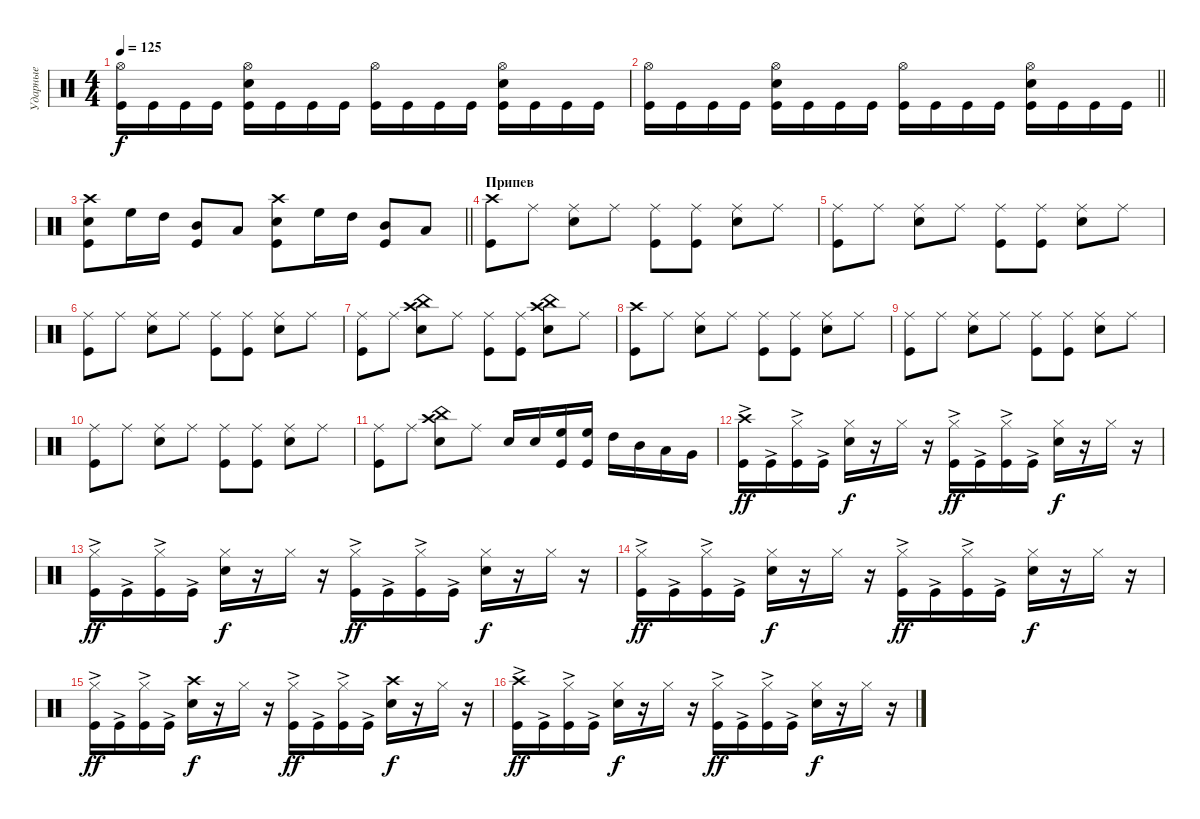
\track ("Ударные" "Ударные") {instrument percussion}
\staff {score}
\articulation defaults
\ts (4 4)
\tempo 125
\clef neutral
\ks c
("Hi-Hat (open)" "Kick (hit)").16{dy f} "Kick (hit)".16 "Kick (hit)".16 "Kick (hit)".16 ("Hi-Hat (open)" "Snare (hit) 2" "Kick (hit)").16 "Kick (hit)".16 "Kick (hit)".16 "Kick (hit)".16 ("Hi-Hat (open)" "Kick (hit)").16 "Kick (hit)".16 "Kick (hit)".16 "Kick (hit)".16 ("Hi-Hat (open)" "Snare (hit) 2" "Kick (hit)").16 "Kick (hit)".16 "Kick (hit)".16 "Kick (hit)".16 |
\barLineRight lightlight
("Hi-Hat (open)" "Kick (hit)").16 "Kick (hit)".16 "Kick (hit)".16 "Kick (hit)".16 ("Hi-Hat (open)" "Snare (hit) 2" "Kick (hit)").16 "Kick (hit)".16 "Kick (hit)".16 "Kick (hit)".16 ("Hi-Hat (open)" "Kick (hit)").16 "Kick (hit)".16 "Kick (hit)".16 "Kick (hit)".16 ("Hi-Hat (open)" "Snare (hit) 2" "Kick (hit)").16 "Kick (hit)".16 "Kick (hit)".16 "Kick (hit)".16 |
\section ("" "")
\barLineRight lightlight
("Crash high (hit)" "Snare (hit) 2" "Kick (hit)").8 "High Floor Tom (hit)".16 "High Tom (hit)".16 ("Mid Tom (hit)" "Kick (hit)").8 "Low Tom (hit)".8 ("Crash high (hit)" "Snare (hit) 2" "Kick (hit)").8 "High Floor Tom (hit)".16 "High Tom (hit)".16 ("Mid Tom (hit)" "Kick (hit)").8 "Low Tom (hit)".8 |
\section ("" "Припев")
("Crash high (hit)" "Kick (hit)").8 "Ride (middle)".8 ("Ride (middle)" "Snare (hit) 2").8 "Ride (middle)".8 ("Ride (middle)" "Kick (hit)").8 ("Ride (middle)" "Kick (hit)").8 ("Ride (middle)" "Snare (hit) 2").8 "Ride (middle)".8 |
("Ride (middle)" "Kick (hit)").8 "Ride (middle)".8 ("Ride (middle)" "Snare (hit) 2").8 "Ride (middle)".8 ("Ride (middle)" "Kick (hit)").8 ("Ride (middle)" "Kick (hit)").8 ("Ride (middle)" "Snare (hit) 2").8 "Ride (middle)".8 |
("Ride (middle)" "Kick (hit)").8 "Ride (middle)".8 ("Ride (middle)" "Snare (hit) 2").8 "Ride (middle)".8 ("Ride (middle)" "Kick (hit)").8 ("Ride (middle)" "Kick (hit)").8 ("Ride (middle)" "Snare (hit) 2").8 "Ride (middle)".8 |
("Ride (middle)" "Kick (hit)").8 "Ride (middle)".8 ("Crash high (hit)" "China (hit)" "Snare (hit) 2").8 "Ride (middle)".8 ("Ride (middle)" "Kick (hit)").8 ("Ride (middle)" "Kick (hit)").8 ("Crash high (hit)" "China (hit)" "Snare (hit) 2").8 "Ride (middle)".8 |
("Crash high (hit)" "Kick (hit)").8 "Ride (middle)".8 ("Ride (middle)" "Snare (hit) 2").8 "Ride (middle)".8 ("Ride (middle)" "Kick (hit)").8 ("Ride (middle)" "Kick (hit)").8 ("Ride (middle)" "Snare (hit) 2").8 "Ride (middle)".8 |
("Ride (middle)" "Kick (hit)").8 "Ride (middle)".8 ("Ride (middle)" "Snare (hit) 2").8 "Ride (middle)".8 ("Ride (middle)" "Kick (hit)").8 ("Ride (middle)" "Kick (hit)").8 ("Ride (middle)" "Snare (hit) 2").8 "Ride (middle)".8 |
("Ride (middle)" "Kick (hit)").8 "Ride (middle)".8 ("Ride (middle)" "Snare (hit) 2").8 "Ride (middle)".8 ("Ride (middle)" "Kick (hit)").8 ("Ride (middle)" "Kick (hit)").8 ("Ride (middle)" "Snare (hit) 2").8 "Ride (middle)".8 |
("Ride (middle)" "Kick (hit)").8 "Ride (middle)".8 ("Crash high (hit)" "China (hit)" "Snare (hit) 2").8 "Ride (middle)".8 "Snare (hit) 2".16 "Snare (hit) 2".16 ("High Floor Tom (hit)" "Kick (hit)").16 ("High Floor Tom (hit)" "Kick (hit)").16 "High Tom (hit)".16 "Mid Tom (hit)".16 "Low Tom (hit)".16 "Very Low Tom (hit)".16 |
("Crash high (hit)" "Kick (hit)"{ac}).16{dy ff} "Kick (hit)"{ac}.16 ("Hi-Hat (closed)" "Kick (hit)"{ac}).16 "Kick (hit)"{ac}.16 ("Hi-Hat (closed)" "Snare (hit) 2").16{dy f} r.16 "Hi-Hat (closed)".16 r.16 ("Hi-Hat (closed)" "Kick (hit)"{ac}).16{dy ff} "Kick (hit)"{ac}.16 ("Hi-Hat (closed)" "Kick (hit)"{ac}).16 "Kick (hit)"{ac}.16 ("Hi-Hat (closed)" "Snare (hit) 2").16{dy f} r.16 "Hi-Hat (closed)".16 r.16 |
("Hi-Hat (closed)" "Kick (hit)"{ac}).16{dy ff} "Kick (hit)"{ac}.16 ("Hi-Hat (closed)" "Kick (hit)"{ac}).16 "Kick (hit)"{ac}.16 ("Hi-Hat (closed)" "Snare (hit) 2").16{dy f} r.16 "Hi-Hat (closed)".16 r.16 ("Hi-Hat (closed)" "Kick (hit)"{ac}).16{dy ff} "Kick (hit)"{ac}.16 ("Hi-Hat (closed)" "Kick (hit)"{ac}).16 "Kick (hit)"{ac}.16 ("Hi-Hat (closed)" "Snare (hit) 2").16{dy f} r.16 "Hi-Hat (closed)".16 r.16 |
("Hi-Hat (closed)" "Kick (hit)"{ac}).16{dy ff} "Kick (hit)"{ac}.16 ("Hi-Hat (closed)" "Kick (hit)"{ac}).16 "Kick (hit)"{ac}.16 ("Hi-Hat (closed)" "Snare (hit) 2").16{dy f} r.16 "Hi-Hat (closed)".16 r.16 ("Hi-Hat (closed)" "Kick (hit)"{ac}).16{dy ff} "Kick (hit)"{ac}.16 ("Hi-Hat (closed)" "Kick (hit)"{ac}).16 "Kick (hit)"{ac}.16 ("Hi-Hat (closed)" "Snare (hit) 2").16{dy f} r.16 "Hi-Hat (closed)".16 r.16 |
("Hi-Hat (closed)" "Kick (hit)"{ac}).16{dy ff} "Kick (hit)"{ac}.16 ("Hi-Hat (closed)" "Kick (hit)"{ac}).16 "Kick (hit)"{ac}.16 ("Crash high (hit)" "Snare (hit) 2").16{dy f} r.16 "Hi-Hat (closed)".16 r.16 ("Hi-Hat (closed)" "Kick (hit)"{ac}).16{dy ff} "Kick (hit)"{ac}.16 ("Hi-Hat (closed)" "Kick (hit)"{ac}).16 "Kick (hit)"{ac}.16 ("Crash high (hit)" "Snare (hit) 2").16{dy f} r.16 "Hi-Hat (closed)".16 r.16 |
("Crash high (hit)" "Kick (hit)"{ac}).16{dy ff} "Kick (hit)"{ac}.16 ("Hi-Hat (closed)" "Kick (hit)"{ac}).16 "Kick (hit)"{ac}.16 ("Hi-Hat (closed)" "Snare (hit) 2").16{dy f} r.16 "Hi-Hat (closed)".16 r.16 ("Hi-Hat (closed)" "Kick (hit)"{ac}).16{dy ff} "Kick (hit)"{ac}.16 ("Hi-Hat (closed)" "Kick (hit)"{ac}).16 "Kick (hit)"{ac}.16 ("Hi-Hat (closed)" "Snare (hit) 2").16{dy f} r.16 "Hi-Hat (closed)".16 r.16
